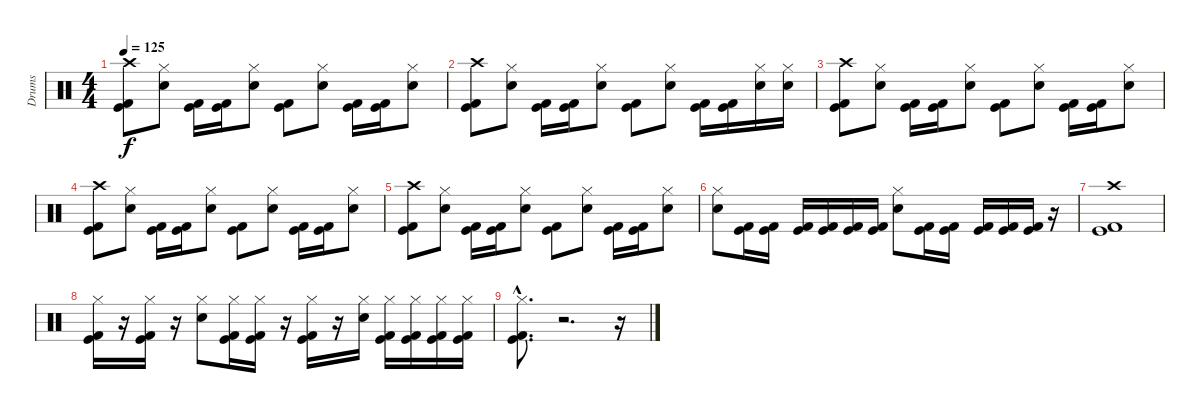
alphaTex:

\track ("Drums" "Drums") {instrument percussion}
\staff {score}
\articulation defaults
\ts (4 4)
\tempo 125
\clef neutral
\ks c
("Crash high (hit)" "Kick (hit)" "Kick (hit) 2").8{dy f} ("Hi-Hat (closed)" "Electric Snare (hit)").8 ("Kick (hit)" "Kick (hit) 2").16 ("Kick (hit)" "Kick (hit) 2").16 ("Hi-Hat (closed)" "Electric Snare (hit)").8 ("Kick (hit)" "Kick (hit) 2").8 ("Hi-Hat (closed)" "Electric Snare (hit)").8 ("Kick (hit)" "Kick (hit) 2").16 ("Kick (hit)" "Kick (hit) 2").16 ("Hi-Hat (closed)" "Electric Snare (hit)").8 |
("Crash high (hit)" "Kick (hit)" "Kick (hit) 2").8 ("Hi-Hat (closed)" "Electric Snare (hit)").8 ("Kick (hit)" "Kick (hit) 2").16 ("Kick (hit)" "Kick (hit) 2").16 ("Hi-Hat (closed)" "Electric Snare (hit)").8 ("Kick (hit)" "Kick (hit) 2").8 ("Hi-Hat (closed)" "Electric Snare (hit)").8 ("Kick (hit)" "Kick (hit) 2").16 ("Kick (hit)" "Kick (hit) 2").16 ("Hi-Hat (closed)" "Electric Snare (hit)").16 ("Hi-Hat (closed)" "Electric Snare (hit)").16 |
("Crash high (hit)" "Kick (hit)" "Kick (hit) 2").8 ("Hi-Hat (closed)" "Electric Snare (hit)").8 ("Kick (hit)" "Kick (hit) 2").16 ("Kick (hit)" "Kick (hit) 2").16 ("Hi-Hat (closed)" "Electric Snare (hit)").8 ("Kick (hit)" "Kick (hit) 2").8 ("Hi-Hat (closed)" "Electric Snare (hit)").8 ("Kick (hit)" "Kick (hit) 2").16 ("Kick (hit)" "Kick (hit) 2").16 ("Hi-Hat (closed)" "Electric Snare (hit)").8 |
("Crash high (hit)" "Kick (hit)" "Kick (hit) 2").8 ("Hi-Hat (closed)" "Electric Snare (hit)").8 ("Kick (hit)" "Kick (hit) 2").16 ("Kick (hit)" "Kick (hit) 2").16 ("Hi-Hat (closed)" "Electric Snare (hit)").8 ("Kick (hit)" "Kick (hit) 2").8 ("Hi-Hat (closed)" "Electric Snare (hit)").8 ("Kick (hit)" "Kick (hit) 2").16 ("Kick (hit)" "Kick (hit) 2").16 ("Hi-Hat (closed)" "Electric Snare (hit)").8 |
("Crash high (hit)" "Kick (hit)" "Kick (hit) 2").8 ("Hi-Hat (closed)" "Electric Snare (hit)").8 ("Kick (hit)" "Kick (hit) 2").16 ("Kick (hit)" "Kick (hit) 2").16 ("Hi-Hat (closed)" "Electric Snare (hit)").8 ("Kick (hit)" "Kick (hit) 2").8 ("Hi-Hat (closed)" "Electric Snare (hit)").8 ("Kick (hit)" "Kick (hit) 2").16 ("Kick (hit)" "Kick (hit) 2").16 ("Hi-Hat (closed)" "Electric Snare (hit)").8 |
("Hi-Hat (closed)" "Electric Snare (hit)").8 ("Kick (hit)" "Kick (hit) 2").16 ("Kick (hit)" "Kick (hit) 2").16 ("Kick (hit)" "Kick (hit) 2").16 ("Kick (hit)" "Kick (hit) 2").16 ("Kick (hit)" "Kick (hit) 2").16 ("Kick (hit)" "Kick (hit) 2").16 ("Hi-Hat (closed)" "Electric Snare (hit)").8 ("Kick (hit)" "Kick (hit) 2").16 ("Kick (hit)" "Kick (hit) 2").16 ("Kick (hit)" "Kick (hit) 2").16 ("Kick (hit)" "Kick (hit) 2").16 ("Kick (hit)" "Kick (hit) 2").16 r.16 |
("Crash high (hit)" "Kick (hit)" "Kick (hit) 2").1 |
("Hi-Hat (closed)" "Kick (hit)" "Kick (hit) 2").16 r.16 ("Hi-Hat (closed)" "Kick (hit)" "Kick (hit) 2").16 r.16 ("Hi-Hat (closed)" "Electric Snare (hit)").8 ("Hi-Hat (closed)" "Kick (hit)" "Kick (hit) 2").16 ("Hi-Hat (closed)" "Kick (hit)" "Kick (hit) 2").16 r.16 ("Hi-Hat (closed)" "Kick (hit)" "Kick (hit) 2").16 r.16 ("Hi-Hat (closed)" "Electric Snare (hit)").16 ("Hi-Hat (closed)" "Kick (hit)" "Kick (hit) 2").16 ("Hi-Hat (closed)" "Kick (hit)" "Kick (hit) 2").16 ("Hi-Hat (closed)" "Kick (hit)" "Kick (hit) 2").16 ("Hi-Hat (closed)" "Kick (hit)" "Kick (hit) 2").16 |
("Hi-Hat (closed)"{hac} "Kick (hit)"{hac} "Kick (hit) 2"{hac}).8{d} r.2{d} r.16
